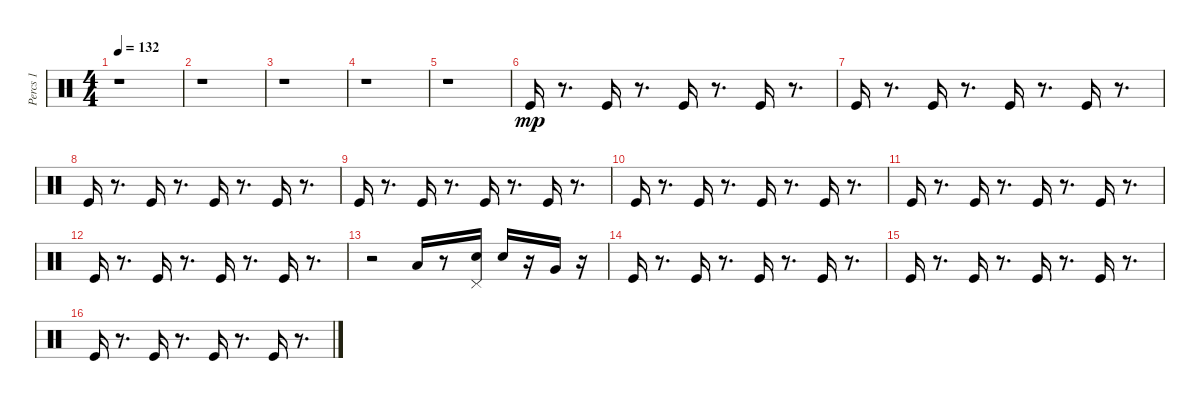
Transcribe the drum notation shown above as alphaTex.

\track ("Percs 1" "Percs 1") {instrument percussion}
\staff {score}
\articulation defaults
\ts (4 4)
\tempo 132
\clef neutral
\ks c
r.1{dy mp} |
r.1 |
r.1 |
r.1 |
r.1 |
"Kick (hit)".16 r.8{d} "Kick (hit)".16 r.8{d} "Kick (hit)".16 r.8{d} "Kick (hit)".16 r.8{d} |
"Kick (hit)".16 r.8{d} "Kick (hit)".16 r.8{d} "Kick (hit)".16 r.8{d} "Kick (hit)".16 r.8{d} |
"Kick (hit)".16 r.8{d} "Kick (hit)".16 r.8{d} "Kick (hit)".16 r.8{d} "Kick (hit)".16 r.8{d} |
"Kick (hit)".16 r.8{d} "Kick (hit)".16 r.8{d} "Kick (hit)".16 r.8{d} "Kick (hit)".16 r.8{d} |
"Kick (hit)".16 r.8{d} "Kick (hit)".16 r.8{d} "Kick (hit)".16 r.8{d} "Kick (hit)".16 r.8{d} |
"Kick (hit)".16 r.8{d} "Kick (hit)".16 r.8{d} "Kick (hit)".16 r.8{d} "Kick (hit)".16 r.8{d} |
"Kick (hit)".16 r.8{d} "Kick (hit)".16 r.8{d} "Kick (hit)".16 r.8{d} "Kick (hit)".16 r.8{d} |
r.2 "Low Floor Tom (hit)".16 r.8 ("Snare (hit) 2" "Pedal Hi-Hat (hit)").16 "Snare (hit) 2".16 r.16 "Very Low Tom (hit)".16 r.16 |
"Kick (hit)".16 r.8{d} "Kick (hit)".16 r.8{d} "Kick (hit)".16 r.8{d} "Kick (hit)".16 r.8{d} |
"Kick (hit)".16 r.8{d} "Kick (hit)".16 r.8{d} "Kick (hit)".16 r.8{d} "Kick (hit)".16 r.8{d} |
"Kick (hit)".16 r.8{d} "Kick (hit)".16 r.8{d} "Kick (hit)".16 r.8{d} "Kick (hit)".16 r.8{d}
